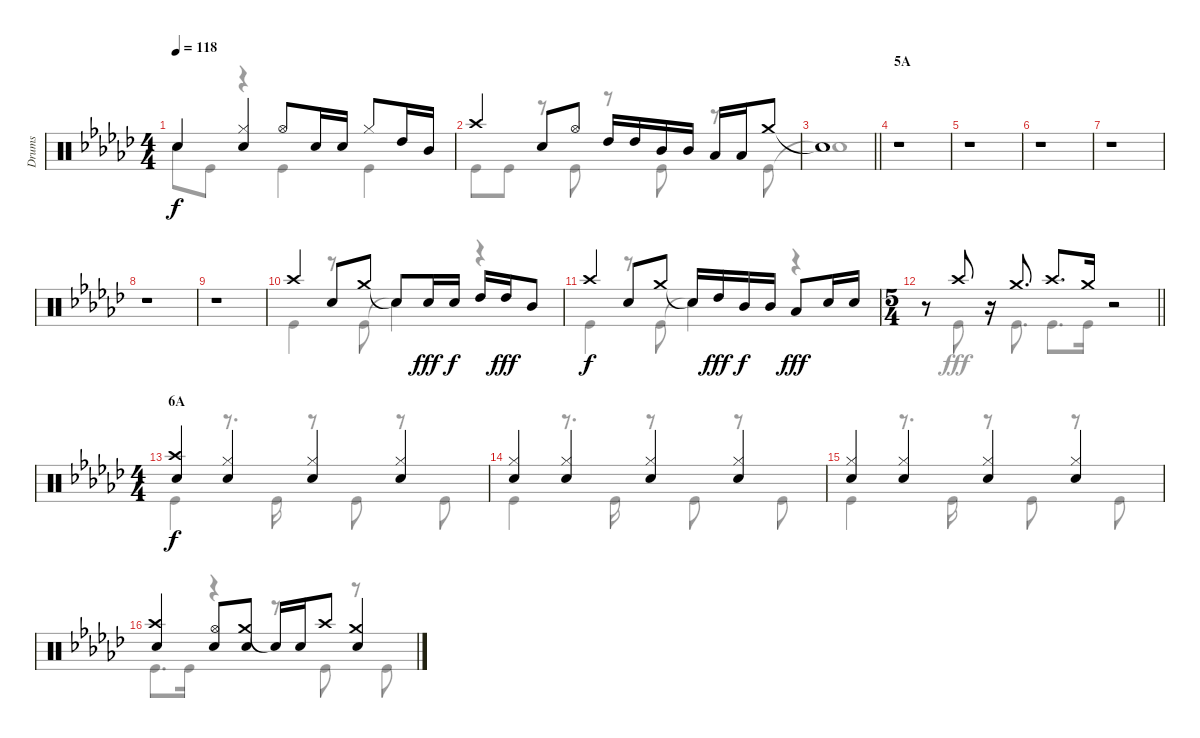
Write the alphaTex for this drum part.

\track ("Drums" "Drums") {instrument percussion}
\staff {score}
\articulation defaults
\voice
\ts (4 4)
\tempo 118
\clef neutral
\ks gb "Snare (hit)"{t}.4{dy f}
("Hi-Hat (closed)" "Snare (hit) 2").4 "Hi-Hat (open)".8 "Snare (hit) 2".16 "Snare (hit) 2".16 "Hi-Hat (closed)".8 "High Tom (hit)".16 "Mid Tom (hit)".16 |
"Crash high (hit)".4 "Snare (hit) 2".8 "Hi-Hat (open)".8 "High Tom (hit)".16 "High Tom (hit)".16 "Mid Tom (hit)".16 "Mid Tom (hit)".16 "Low Tom (hit)".16 "Low Tom (hit)".16 "Crash medium (hit)".8 |
\barLineRight lightlight "Snare (hit)"{t}.1
|
\section ("" "5A")
r.1 |
r.1 |
r.1 |
r.1 |
r.1 |
r.1 |
"Crash high (hit)".4 "Snare (hit) 2".8 "Crash medium (hit)".8 "Snare (hit)"{t}.8 "Snare (hit) 2".16{dy fff} "Snare (hit) 2".16{dy f} "High Tom (hit)".16 "High Tom (hit)".16{dy fff} "Mid Tom (hit)".8 |
"Crash high (hit)".4{dy f} "Snare (hit) 2".8 "Crash medium (hit)".8 "Snare (hit)"{t}.16 "High Tom (hit)".16{dy fff} "Mid Tom (hit)".16{dy f} "Mid Tom (hit)".16 "Low Tom (hit)".8{dy fff} "Snare (hit) 2".16 "Snare (hit) 2".16 |
\ts (5 4)
\barLineRight lightlight
r.8 "Crash high (hit)".8 r.16 "Crash medium (hit)".8{d} "Crash high (hit)".8{d} "Crash medium (hit)".16 r.2 |
\ts (4 4)
\section ("" "6A")
("Crash high (hit)" "Snare (hit) 2").4{dy f} ("Hi-Hat (closed)" "Snare (hit) 2").4 ("Hi-Hat (closed)" "Snare (hit) 2").4 ("Hi-Hat (closed)" "Snare (hit) 2").4 |
("Hi-Hat (closed)" "Snare (hit) 2").4 ("Hi-Hat (closed)" "Snare (hit) 2").4 ("Hi-Hat (closed)" "Snare (hit) 2").4 ("Hi-Hat (closed)" "Snare (hit) 2").4 |
("Hi-Hat (closed)" "Snare (hit) 2").4 ("Hi-Hat (closed)" "Snare (hit) 2").4 ("Hi-Hat (closed)" "Snare (hit) 2").4 ("Hi-Hat (closed)" "Snare (hit) 2").4 |
("Crash high (hit)" "Snare (hit) 2").4 ("Hi-Hat (open)" "Snare (hit) 2").8 ("Crash medium (hit)" "Snare (hit) 2").8 "Snare (hit)"{t}.16 "Snare (hit) 2".16 "Crash high (hit)".8 ("Crash medium (hit)" "Snare (hit) 2").4
\voice
\clef neutral
\ottava regular
\simile none
\ks gb "Snare (hit)"{t}.8{dy f} "Kick (hit)".8
r.4 "Kick (hit)".4 "Kick (hit)".4 |
"Kick (hit)".8 "Kick (hit)".8 r.8 "Kick (hit)".8 r.8 "Kick (hit)".8 r.8 "Kick (hit)".8 |
\barLineRight lightlight "Snare (hit)"{t}.1
|
r.1 |
r.1 |
r.1 |
r.1 |
r.1 |
r.1 |
"Kick (hit)".4 r.8 "Kick (hit)".8 "Snare (hit)"{t}.4 r.4 |
"Kick (hit)".4 r.8 "Kick (hit)".8 "Snare (hit)"{t}.4 r.4 |
\barLineRight lightlight
r.8 "Kick (hit)".8{dy fff} r.16 "Kick (hit)".8{d} "Kick (hit)".8{d} "Kick (hit)".16 r.2 |
"Kick (hit)".4{dy f} r.8{d} "Kick (hit)".16 r.8 "Kick (hit)".8 r.8 "Kick (hit)".8 |
"Kick (hit)".4 r.8{d} "Kick (hit)".16 r.8 "Kick (hit)".8 r.8 "Kick (hit)".8 |
"Kick (hit)".4 r.8{d} "Kick (hit)".16 r.8 "Kick (hit)".8 r.8 "Kick (hit)".8 |
"Kick (hit)".8{d} "Kick (hit)".16 r.4 r.8 "Kick (hit)".8 r.8 "Kick (hit)".8
